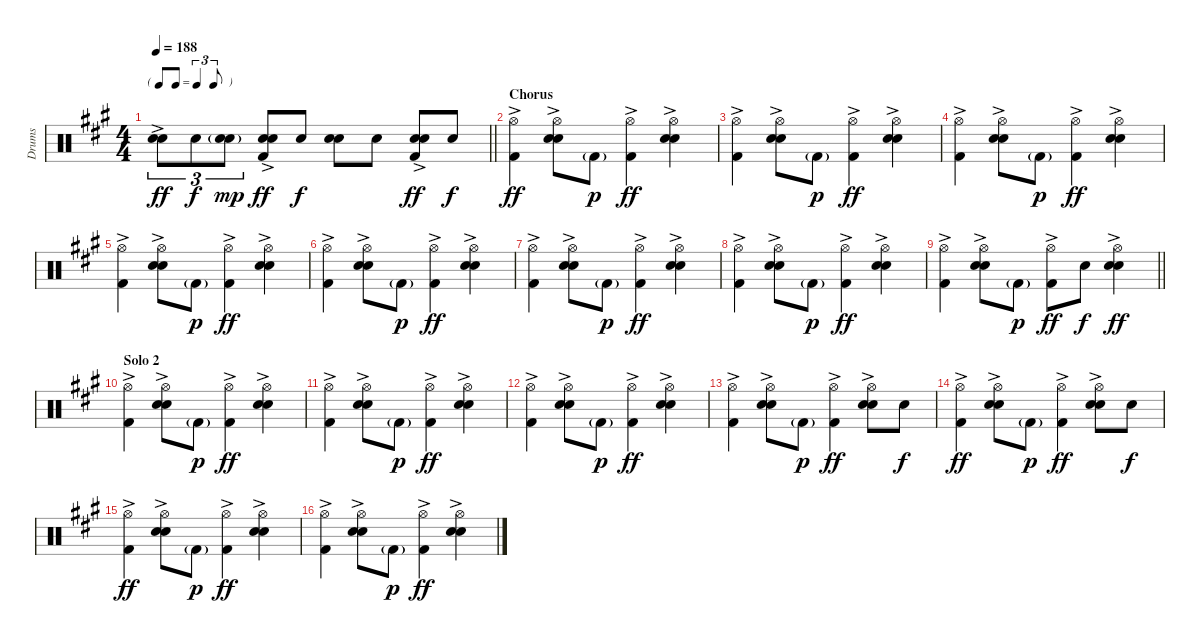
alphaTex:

\track ("Drums" "Drums") {instrument percussion}
\staff {score}
\articulation defaults
\ts (4 4)
\tf triplet8th
\tempo 188
\clef neutral
\barLineRight lightlight
\ks a
("Electric Snare (hit)"{ac} "Snare (hit) 2").8{tu (3 2) dy ff} "Snare (hit) 2".8{tu (3 2) dy f} ("Electric Snare (hit)"{g} "Snare (hit) 2").8{tu (3 2) dy mp} ("Electric Snare (hit)"{ac} "Snare (hit) 2" "Kick (hit) 2").8{dy ff} "Snare (hit) 2".8{dy f} ("Electric Snare (hit)" "Snare (hit) 2").8 "Snare (hit) 2".8 ("Electric Snare (hit)"{ac} "Snare (hit) 2" "Kick (hit) 2").8{dy ff} "Snare (hit) 2".8{dy f} |
\section ("" "Chorus")
("Hi-Hat (open)" "Kick (hit) 2"{ac}).4{dy ff} ("Hi-Hat (open)" "Electric Snare (hit)"{ac} "Snare (hit) 2").8 "Kick (hit) 2"{g}.8{dy p} ("Hi-Hat (open)" "Kick (hit) 2"{ac}).4{dy ff} ("Hi-Hat (open)" "Electric Snare (hit)"{ac} "Snare (hit) 2").4 |
("Hi-Hat (open)" "Kick (hit) 2"{ac}).4 ("Hi-Hat (open)" "Electric Snare (hit)"{ac} "Snare (hit) 2").8 "Kick (hit) 2"{g}.8{dy p} ("Hi-Hat (open)" "Kick (hit) 2"{ac}).4{dy ff} ("Hi-Hat (open)" "Electric Snare (hit)"{ac} "Snare (hit) 2").4 |
("Hi-Hat (open)" "Kick (hit) 2"{ac}).4 ("Hi-Hat (open)" "Electric Snare (hit)"{ac} "Snare (hit) 2").8 "Kick (hit) 2"{g}.8{dy p} ("Hi-Hat (open)" "Kick (hit) 2"{ac}).4{dy ff} ("Hi-Hat (open)" "Electric Snare (hit)"{ac} "Snare (hit) 2").4 |
("Hi-Hat (open)" "Kick (hit) 2"{ac}).4 ("Hi-Hat (open)" "Electric Snare (hit)"{ac} "Snare (hit) 2").8 "Kick (hit) 2"{g}.8{dy p} ("Hi-Hat (open)" "Kick (hit) 2"{ac}).4{dy ff} ("Hi-Hat (open)" "Electric Snare (hit)"{ac} "Snare (hit) 2").4 |
("Hi-Hat (open)" "Kick (hit) 2"{ac}).4 ("Hi-Hat (open)" "Electric Snare (hit)"{ac} "Snare (hit) 2").8 "Kick (hit) 2"{g}.8{dy p} ("Hi-Hat (open)" "Kick (hit) 2"{ac}).4{dy ff} ("Hi-Hat (open)" "Electric Snare (hit)"{ac} "Snare (hit) 2").4 |
("Hi-Hat (open)" "Kick (hit) 2"{ac}).4 ("Hi-Hat (open)" "Electric Snare (hit)"{ac} "Snare (hit) 2").8 "Kick (hit) 2"{g}.8{dy p} ("Hi-Hat (open)" "Kick (hit) 2"{ac}).4{dy ff} ("Hi-Hat (open)" "Electric Snare (hit)"{ac} "Snare (hit) 2").4 |
("Hi-Hat (open)" "Kick (hit) 2"{ac}).4 ("Hi-Hat (open)" "Electric Snare (hit)"{ac} "Snare (hit) 2").8 "Kick (hit) 2"{g}.8{dy p} ("Hi-Hat (open)" "Kick (hit) 2"{ac}).4{dy ff} ("Hi-Hat (open)" "Electric Snare (hit)"{ac} "Snare (hit) 2").4 |
\barLineRight lightlight
("Hi-Hat (open)" "Kick (hit) 2"{ac}).4 ("Hi-Hat (open)" "Electric Snare (hit)"{ac} "Snare (hit) 2").8 "Kick (hit) 2"{g}.8{dy p} ("Hi-Hat (open)" "Kick (hit) 2"{ac}).8{dy ff} "Snare (hit) 2".8{dy f} ("Hi-Hat (open)" "Electric Snare (hit)"{ac} "Snare (hit) 2").4{dy ff} |
\section ("" "Solo 2")
("Hi-Hat (open)" "Kick (hit) 2"{ac}).4 ("Hi-Hat (open)" "Electric Snare (hit)"{ac} "Snare (hit) 2").8 "Kick (hit) 2"{g}.8{dy p} ("Hi-Hat (open)" "Kick (hit) 2"{ac}).4{dy ff} ("Hi-Hat (open)" "Electric Snare (hit)"{ac} "Snare (hit) 2").4 |
("Hi-Hat (open)" "Kick (hit) 2"{ac}).4 ("Hi-Hat (open)" "Electric Snare (hit)"{ac} "Snare (hit) 2").8 "Kick (hit) 2"{g}.8{dy p} ("Hi-Hat (open)" "Kick (hit) 2"{ac}).4{dy ff} ("Hi-Hat (open)" "Electric Snare (hit)"{ac} "Snare (hit) 2").4 |
("Hi-Hat (open)" "Kick (hit) 2"{ac}).4 ("Hi-Hat (open)" "Electric Snare (hit)"{ac} "Snare (hit) 2").8 "Kick (hit) 2"{g}.8{dy p} ("Hi-Hat (open)" "Kick (hit) 2"{ac}).4{dy ff} ("Hi-Hat (open)" "Electric Snare (hit)"{ac} "Snare (hit) 2").4 |
("Hi-Hat (open)" "Kick (hit) 2"{ac}).4 ("Hi-Hat (open)" "Electric Snare (hit)"{ac} "Snare (hit) 2").8 "Kick (hit) 2"{g}.8{dy p} ("Hi-Hat (open)" "Kick (hit) 2"{ac}).4{dy ff} ("Hi-Hat (open)" "Electric Snare (hit)"{ac} "Snare (hit) 2").8 "Snare (hit) 2".8{dy f} |
("Hi-Hat (open)" "Kick (hit) 2"{ac}).4{dy ff} ("Hi-Hat (open)" "Electric Snare (hit)"{ac} "Snare (hit) 2").8 "Kick (hit) 2"{g}.8{dy p} ("Hi-Hat (open)" "Kick (hit) 2"{ac}).4{dy ff} ("Hi-Hat (open)" "Electric Snare (hit)"{ac} "Snare (hit) 2").8 "Snare (hit) 2".8{dy f} |
("Hi-Hat (open)" "Kick (hit) 2"{ac}).4{dy ff} ("Hi-Hat (open)" "Electric Snare (hit)"{ac} "Snare (hit) 2").8 "Kick (hit) 2"{g}.8{dy p} ("Hi-Hat (open)" "Kick (hit) 2"{ac}).4{dy ff} ("Hi-Hat (open)" "Electric Snare (hit)"{ac} "Snare (hit) 2").4 |
("Hi-Hat (open)" "Kick (hit) 2"{ac}).4 ("Hi-Hat (open)" "Electric Snare (hit)"{ac} "Snare (hit) 2").8 "Kick (hit) 2"{g}.8{dy p} ("Hi-Hat (open)" "Kick (hit) 2"{ac}).4{dy ff} ("Hi-Hat (open)" "Electric Snare (hit)"{ac} "Snare (hit) 2").4
